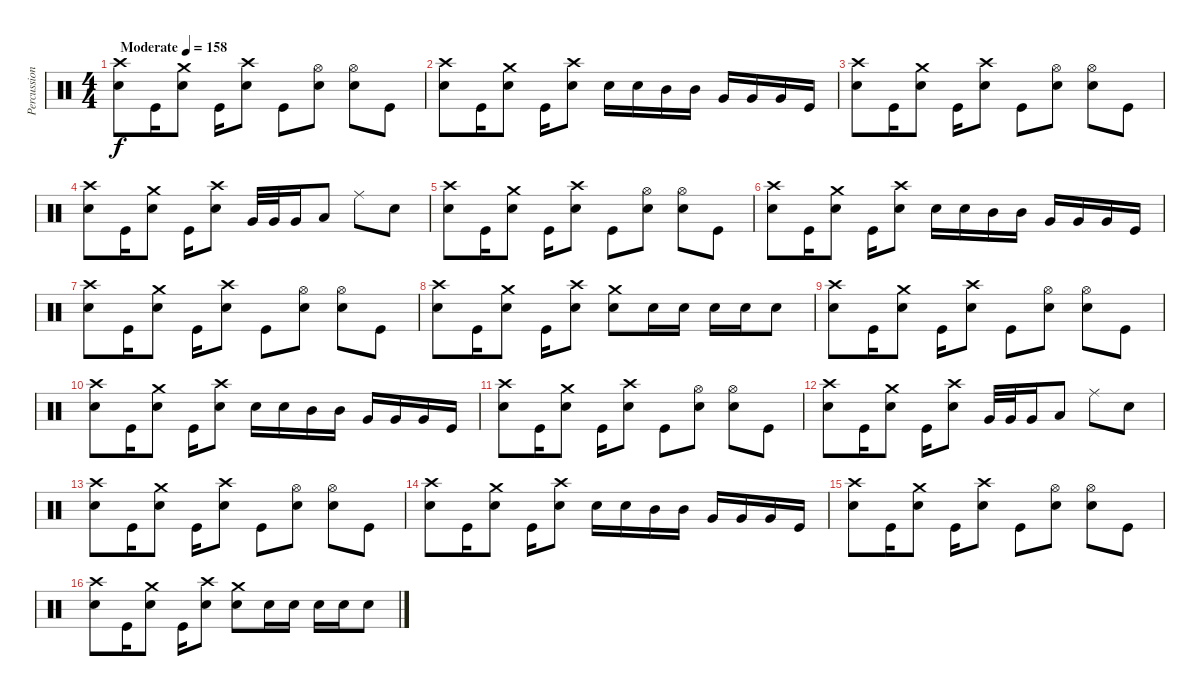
\track ("Percussion" "Percussion") {instrument percussion}
\staff {score}
\articulation defaults
\ts (4 4)
\tempo (158 "Moderate")
\clef neutral
\ks c
("Crash high (hit)" "Snare (hit) 2").8{dy f} "Kick (hit)".16 ("Crash medium (hit)" "Snare (hit) 2").8 "Kick (hit)".16 ("Crash high (hit)" "Snare (hit) 2").8 "Kick (hit)".8 ("Hi-Hat (open)" "Snare (hit) 2").8 ("Hi-Hat (open)" "Snare (hit) 2").8 "Kick (hit)".8 |
("Crash high (hit)" "Snare (hit) 2").8 "Kick (hit)".16 ("Crash medium (hit)" "Snare (hit) 2").8 "Kick (hit)".16 ("Crash high (hit)" "Snare (hit) 2").8 "Snare (hit) 2".16 "Snare (hit) 2".16 "Mid Tom (hit)".16 "Mid Tom (hit)".16 "Very Low Tom (hit)".16 "Very Low Tom (hit)".16 "Very Low Tom (hit)".16 "Kick (hit)".16 |
("Crash high (hit)" "Snare (hit) 2").8 "Kick (hit)".16 ("Crash medium (hit)" "Snare (hit) 2").8 "Kick (hit)".16 ("Crash high (hit)" "Snare (hit) 2").8 "Kick (hit)".8 ("Hi-Hat (open)" "Snare (hit) 2").8 ("Hi-Hat (open)" "Snare (hit) 2").8 "Kick (hit)".8 |
("Crash high (hit)" "Snare (hit) 2").8 "Kick (hit)".16 ("Crash medium (hit)" "Snare (hit) 2").8 "Kick (hit)".16 ("Crash high (hit)" "Snare (hit) 2").8 "Very Low Tom (hit)".32 "Very Low Tom (hit)".32 "Very Low Tom (hit)".16 "Low Floor Tom (hit)".8 "Ride (middle)".8 "Snare (hit) 2".8 |
("Crash high (hit)" "Snare (hit) 2").8 "Kick (hit)".16 ("Crash medium (hit)" "Snare (hit) 2").8 "Kick (hit)".16 ("Crash high (hit)" "Snare (hit) 2").8 "Kick (hit)".8 ("Hi-Hat (open)" "Snare (hit) 2").8 ("Hi-Hat (open)" "Snare (hit) 2").8 "Kick (hit)".8 |
("Crash high (hit)" "Snare (hit) 2").8 "Kick (hit)".16 ("Crash medium (hit)" "Snare (hit) 2").8 "Kick (hit)".16 ("Crash high (hit)" "Snare (hit) 2").8 "Snare (hit) 2".16 "Snare (hit) 2".16 "Mid Tom (hit)".16 "Mid Tom (hit)".16 "Very Low Tom (hit)".16 "Very Low Tom (hit)".16 "Very Low Tom (hit)".16 "Kick (hit)".16 |
("Crash high (hit)" "Snare (hit) 2").8 "Kick (hit)".16 ("Crash medium (hit)" "Snare (hit) 2").8 "Kick (hit)".16 ("Crash high (hit)" "Snare (hit) 2").8 "Kick (hit)".8 ("Hi-Hat (open)" "Snare (hit) 2").8 ("Hi-Hat (open)" "Snare (hit) 2").8 "Kick (hit)".8 |
("Crash high (hit)" "Snare (hit) 2").8 "Kick (hit)".16 ("Crash medium (hit)" "Snare (hit) 2").8 "Kick (hit)".16 ("Crash high (hit)" "Snare (hit) 2").8 ("Crash medium (hit)" "Snare (hit) 2").8 "Snare (hit) 2".16 "Snare (hit) 2".16 "Snare (hit) 2".16 "Snare (hit) 2".16 "Snare (hit) 2".8 |
("Crash high (hit)" "Snare (hit) 2").8 "Kick (hit)".16 ("Crash medium (hit)" "Snare (hit) 2").8 "Kick (hit)".16 ("Crash high (hit)" "Snare (hit) 2").8 "Kick (hit)".8 ("Hi-Hat (open)" "Snare (hit) 2").8 ("Hi-Hat (open)" "Snare (hit) 2").8 "Kick (hit)".8 |
("Crash high (hit)" "Snare (hit) 2").8 "Kick (hit)".16 ("Crash medium (hit)" "Snare (hit) 2").8 "Kick (hit)".16 ("Crash high (hit)" "Snare (hit) 2").8 "Snare (hit) 2".16 "Snare (hit) 2".16 "Mid Tom (hit)".16 "Mid Tom (hit)".16 "Very Low Tom (hit)".16 "Very Low Tom (hit)".16 "Very Low Tom (hit)".16 "Kick (hit)".16 |
("Crash high (hit)" "Snare (hit) 2").8 "Kick (hit)".16 ("Crash medium (hit)" "Snare (hit) 2").8 "Kick (hit)".16 ("Crash high (hit)" "Snare (hit) 2").8 "Kick (hit)".8 ("Hi-Hat (open)" "Snare (hit) 2").8 ("Hi-Hat (open)" "Snare (hit) 2").8 "Kick (hit)".8 |
("Crash high (hit)" "Snare (hit) 2").8 "Kick (hit)".16 ("Crash medium (hit)" "Snare (hit) 2").8 "Kick (hit)".16 ("Crash high (hit)" "Snare (hit) 2").8 "Very Low Tom (hit)".32 "Very Low Tom (hit)".32 "Very Low Tom (hit)".16 "Low Floor Tom (hit)".8 "Ride (middle)".8 "Snare (hit) 2".8 |
("Crash high (hit)" "Snare (hit) 2").8 "Kick (hit)".16 ("Crash medium (hit)" "Snare (hit) 2").8 "Kick (hit)".16 ("Crash high (hit)" "Snare (hit) 2").8 "Kick (hit)".8 ("Hi-Hat (open)" "Snare (hit) 2").8 ("Hi-Hat (open)" "Snare (hit) 2").8 "Kick (hit)".8 |
("Crash high (hit)" "Snare (hit) 2").8 "Kick (hit)".16 ("Crash medium (hit)" "Snare (hit) 2").8 "Kick (hit)".16 ("Crash high (hit)" "Snare (hit) 2").8 "Snare (hit) 2".16 "Snare (hit) 2".16 "Mid Tom (hit)".16 "Mid Tom (hit)".16 "Very Low Tom (hit)".16 "Very Low Tom (hit)".16 "Very Low Tom (hit)".16 "Kick (hit)".16 |
("Crash high (hit)" "Snare (hit) 2").8 "Kick (hit)".16 ("Crash medium (hit)" "Snare (hit) 2").8 "Kick (hit)".16 ("Crash high (hit)" "Snare (hit) 2").8 "Kick (hit)".8 ("Hi-Hat (open)" "Snare (hit) 2").8 ("Hi-Hat (open)" "Snare (hit) 2").8 "Kick (hit)".8 |
("Crash high (hit)" "Snare (hit) 2").8 "Kick (hit)".16 ("Crash medium (hit)" "Snare (hit) 2").8 "Kick (hit)".16 ("Crash high (hit)" "Snare (hit) 2").8 ("Crash medium (hit)" "Snare (hit) 2").8 "Snare (hit) 2".16 "Snare (hit) 2".16 "Snare (hit) 2".16 "Snare (hit) 2".16 "Snare (hit) 2".8
